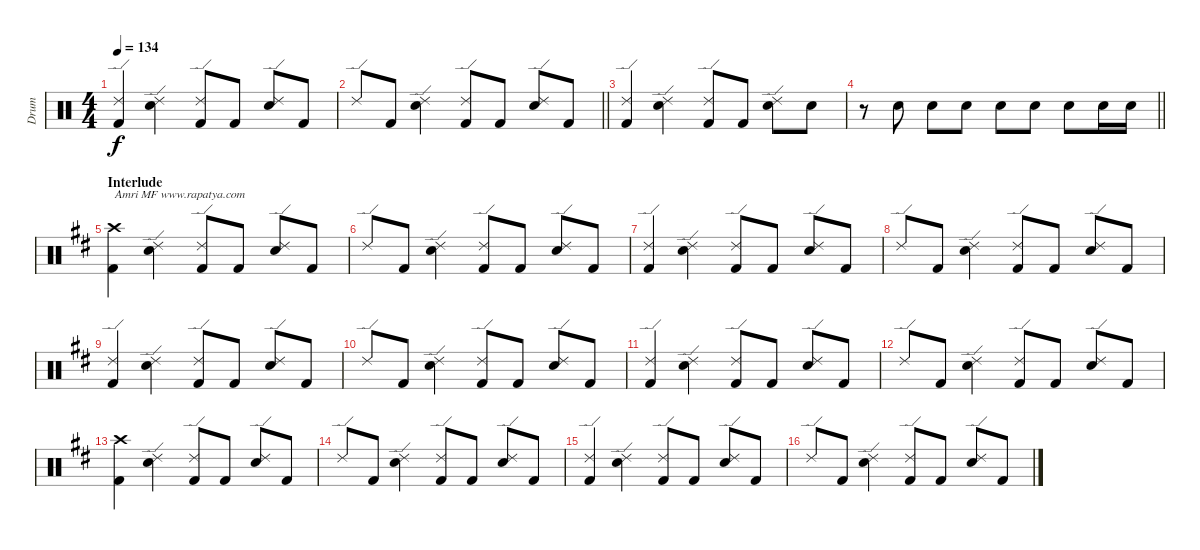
\track ("Drum" "Drum") {instrument percussion}
\staff {score}
\articulation defaults
\ts (4 4)
\tempo 134
\clef neutral
\ks c
("Kick (hit) 2" "Ride (edge) 2").4{dy f} ("Electric Snare (hit)" "Ride (edge) 2").4 ("Ride (edge) 2" "Kick (hit) 2").8 "Kick (hit) 2".8 ("Electric Snare (hit)" "Ride (edge) 2").8 "Kick (hit) 2".8 |
\barLineRight lightlight "Ride (edge) 2".8 "Kick (hit) 2".8
("Electric Snare (hit)" "Ride (edge) 2").4 ("Kick (hit) 2" "Ride (edge) 2").8 "Kick (hit) 2".8 ("Ride (edge) 2" "Electric Snare (hit)").8 "Kick (hit) 2".8 |
("Kick (hit) 2" "Ride (edge) 2").4 ("Electric Snare (hit)" "Ride (edge) 2").4 ("Ride (edge) 2" "Kick (hit) 2").8 "Kick (hit) 2".8 ("Electric Snare (hit)" "Ride (edge) 2").8 "Electric Snare (hit)".8 |
\barLineRight lightlight
r.8 "Electric Snare (hit)".8 "Electric Snare (hit)".8 "Electric Snare (hit)".8 "Electric Snare (hit)".8 "Electric Snare (hit)".8 "Electric Snare (hit)".8 "Electric Snare (hit)".16 "Electric Snare (hit)".16 |
\section ("" "Interlude")
\ks d
("Kick (hit) 2" "Crash high (hit)").4{txt "Amri MF www.rapatya.com"} ("Electric Snare (hit)" "Ride (edge) 2").4 ("Ride (edge) 2" "Kick (hit) 2").8 "Kick (hit) 2".8 ("Electric Snare (hit)" "Ride (edge) 2").8 "Kick (hit) 2".8 |
"Ride (edge) 2".8 "Kick (hit) 2".8 ("Electric Snare (hit)" "Ride (edge) 2").4 ("Kick (hit) 2" "Ride (edge) 2").8 "Kick (hit) 2".8 ("Ride (edge) 2" "Electric Snare (hit)").8 "Kick (hit) 2".8 |
("Kick (hit) 2" "Ride (edge) 2").4 ("Electric Snare (hit)" "Ride (edge) 2").4 ("Ride (edge) 2" "Kick (hit) 2").8 "Kick (hit) 2".8 ("Electric Snare (hit)" "Ride (edge) 2").8 "Kick (hit) 2".8 |
"Ride (edge) 2".8 "Kick (hit) 2".8 ("Electric Snare (hit)" "Ride (edge) 2").4 ("Kick (hit) 2" "Ride (edge) 2").8 "Kick (hit) 2".8 ("Ride (edge) 2" "Electric Snare (hit)").8 "Kick (hit) 2".8 |
("Kick (hit) 2" "Ride (edge) 2").4 ("Electric Snare (hit)" "Ride (edge) 2").4 ("Ride (edge) 2" "Kick (hit) 2").8 "Kick (hit) 2".8 ("Electric Snare (hit)" "Ride (edge) 2").8 "Kick (hit) 2".8 |
"Ride (edge) 2".8 "Kick (hit) 2".8 ("Electric Snare (hit)" "Ride (edge) 2").4 ("Kick (hit) 2" "Ride (edge) 2").8 "Kick (hit) 2".8 ("Ride (edge) 2" "Electric Snare (hit)").8 "Kick (hit) 2".8 |
("Kick (hit) 2" "Ride (edge) 2").4 ("Electric Snare (hit)" "Ride (edge) 2").4 ("Ride (edge) 2" "Kick (hit) 2").8 "Kick (hit) 2".8 ("Electric Snare (hit)" "Ride (edge) 2").8 "Kick (hit) 2".8 |
"Ride (edge) 2".8 "Kick (hit) 2".8 ("Electric Snare (hit)" "Ride (edge) 2").4 ("Kick (hit) 2" "Ride (edge) 2").8 "Kick (hit) 2".8 ("Ride (edge) 2" "Electric Snare (hit)").8 "Kick (hit) 2".8 |
("Kick (hit) 2" "Crash high (hit)").4 ("Electric Snare (hit)" "Ride (edge) 2").4 ("Ride (edge) 2" "Kick (hit) 2").8 "Kick (hit) 2".8 ("Electric Snare (hit)" "Ride (edge) 2").8 "Kick (hit) 2".8 |
"Ride (edge) 2".8 "Kick (hit) 2".8 ("Electric Snare (hit)" "Ride (edge) 2").4 ("Kick (hit) 2" "Ride (edge) 2").8 "Kick (hit) 2".8 ("Ride (edge) 2" "Electric Snare (hit)").8 "Kick (hit) 2".8 |
("Kick (hit) 2" "Ride (edge) 2").4 ("Electric Snare (hit)" "Ride (edge) 2").4 ("Ride (edge) 2" "Kick (hit) 2").8 "Kick (hit) 2".8 ("Electric Snare (hit)" "Ride (edge) 2").8 "Kick (hit) 2".8 |
"Ride (edge) 2".8 "Kick (hit) 2".8 ("Electric Snare (hit)" "Ride (edge) 2").4 ("Kick (hit) 2" "Ride (edge) 2").8 "Kick (hit) 2".8 ("Ride (edge) 2" "Electric Snare (hit)").8 "Kick (hit) 2".8
